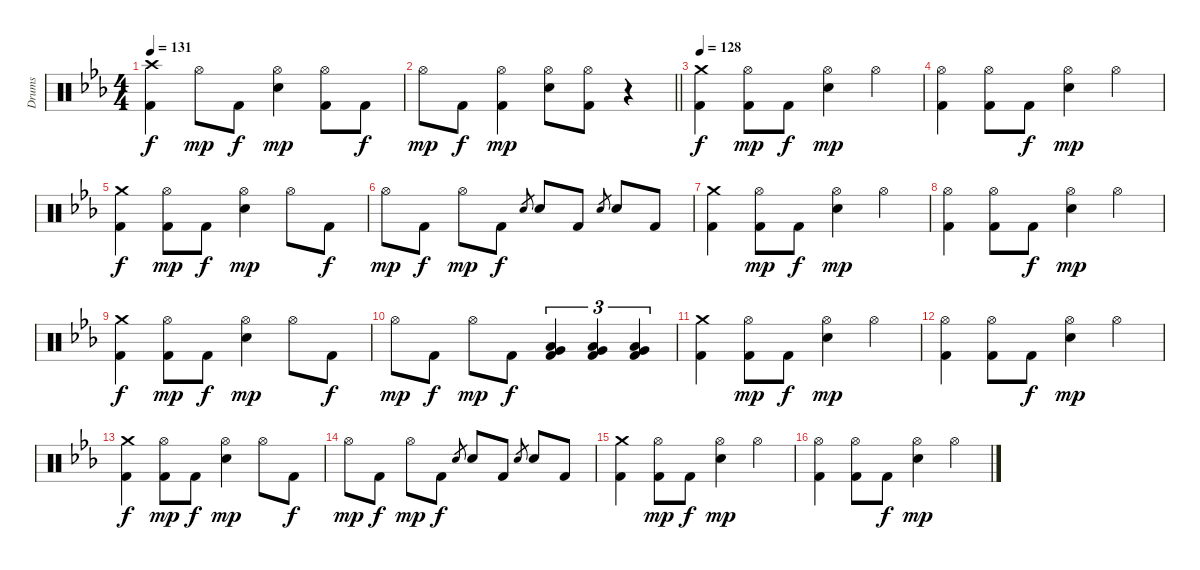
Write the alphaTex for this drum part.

\track ("Drums" "Drums") {instrument percussion}
\staff {score}
\articulation defaults
\ts (4 4)
\tempo 131
\clef neutral
\ks cminor
("Crash high (hit)" "Kick (hit) 2").4{dy f} "Hi-Hat (open)".8{dy mp} "Kick (hit) 2".8{dy f} ("Hi-Hat (open)" "Electric Snare (hit)").4{dy mp} ("Hi-Hat (open)" "Kick (hit) 2").8 "Kick (hit) 2".8{dy f} |
\barLineRight lightlight "Hi-Hat (open)".8{dy mp} "Kick (hit) 2".8{dy f}
("Hi-Hat (open)" "Kick (hit) 2").4{dy mp} ("Hi-Hat (open)" "Electric Snare (hit)").8 ("Hi-Hat (open)" "Kick (hit) 2").8 r.4 |
\tempo 128
("Crash medium (hit)" "Kick (hit) 2").4{dy f} ("Hi-Hat (open)" "Kick (hit) 2").8{dy mp} "Kick (hit) 2".8{dy f} ("Hi-Hat (open)" "Electric Snare (hit)").4{dy mp} "Hi-Hat (open)".4 |
("Hi-Hat (open)" "Kick (hit) 2").4 ("Hi-Hat (open)" "Kick (hit) 2").8 "Kick (hit) 2".8{dy f} ("Hi-Hat (open)" "Electric Snare (hit)").4{dy mp} "Hi-Hat (open)".4 |
("Crash medium (hit)" "Kick (hit) 2").4{dy f} ("Hi-Hat (open)" "Kick (hit) 2").8{dy mp} "Kick (hit) 2".8{dy f} ("Hi-Hat (open)" "Electric Snare (hit)").4{dy mp} "Hi-Hat (open)".8 "Kick (hit) 2".8{dy f} |
"Hi-Hat (open)".8{dy mp} "Kick (hit) 2".8{dy f} "Hi-Hat (open)".8{dy mp} "Kick (hit) 2".8{dy f} "Electric Snare (hit)".8{gr} "Electric Snare (hit)".8 "Kick (hit) 2".8 "Electric Snare (hit)".8{gr} "Electric Snare (hit)".8 "Kick (hit) 2".8 |
("Crash medium (hit)" "Kick (hit) 2").4 ("Hi-Hat (open)" "Kick (hit) 2").8{dy mp} "Kick (hit) 2".8{dy f} ("Hi-Hat (open)" "Electric Snare (hit)").4{dy mp} "Hi-Hat (open)".4 |
("Hi-Hat (open)" "Kick (hit) 2").4 ("Hi-Hat (open)" "Kick (hit) 2").8 "Kick (hit) 2".8{dy f} ("Hi-Hat (open)" "Electric Snare (hit)").4{dy mp} "Hi-Hat (open)".4 |
("Crash medium (hit)" "Kick (hit) 2").4{dy f} ("Hi-Hat (open)" "Kick (hit) 2").8{dy mp} "Kick (hit) 2".8{dy f} ("Hi-Hat (open)" "Electric Snare (hit)").4{dy mp} "Hi-Hat (open)".8 "Kick (hit) 2".8{dy f} |
"Hi-Hat (open)".8{dy mp} "Kick (hit) 2".8{dy f} "Hi-Hat (open)".8{dy mp} "Kick (hit) 2".8{dy f} ("Low Tom (hit)" "Very Low Tom (hit)" "Kick (hit) 2").4{tu (3 2)} ("Low Tom (hit)" "Very Low Tom (hit)" "Kick (hit) 2").4{tu (3 2)} ("Low Tom (hit)" "Very Low Tom (hit)" "Kick (hit) 2").4{tu (3 2)} |
("Crash medium (hit)" "Kick (hit) 2").4 ("Hi-Hat (open)" "Kick (hit) 2").8{dy mp} "Kick (hit) 2".8{dy f} ("Hi-Hat (open)" "Electric Snare (hit)").4{dy mp} "Hi-Hat (open)".4 |
("Hi-Hat (open)" "Kick (hit) 2").4 ("Hi-Hat (open)" "Kick (hit) 2").8 "Kick (hit) 2".8{dy f} ("Hi-Hat (open)" "Electric Snare (hit)").4{dy mp} "Hi-Hat (open)".4 |
("Crash medium (hit)" "Kick (hit) 2").4{dy f} ("Hi-Hat (open)" "Kick (hit) 2").8{dy mp} "Kick (hit) 2".8{dy f} ("Hi-Hat (open)" "Electric Snare (hit)").4{dy mp} "Hi-Hat (open)".8 "Kick (hit) 2".8{dy f} |
"Hi-Hat (open)".8{dy mp} "Kick (hit) 2".8{dy f} "Hi-Hat (open)".8{dy mp} "Kick (hit) 2".8{dy f} "Electric Snare (hit)".8{gr} "Electric Snare (hit)".8 "Kick (hit) 2".8 "Electric Snare (hit)".8{gr} "Electric Snare (hit)".8 "Kick (hit) 2".8 |
("Crash medium (hit)" "Kick (hit) 2").4 ("Hi-Hat (open)" "Kick (hit) 2").8{dy mp} "Kick (hit) 2".8{dy f} ("Hi-Hat (open)" "Electric Snare (hit)").4{dy mp} "Hi-Hat (open)".4 |
("Hi-Hat (open)" "Kick (hit) 2").4 ("Hi-Hat (open)" "Kick (hit) 2").8 "Kick (hit) 2".8{dy f} ("Hi-Hat (open)" "Electric Snare (hit)").4{dy mp} "Hi-Hat (open)".4
